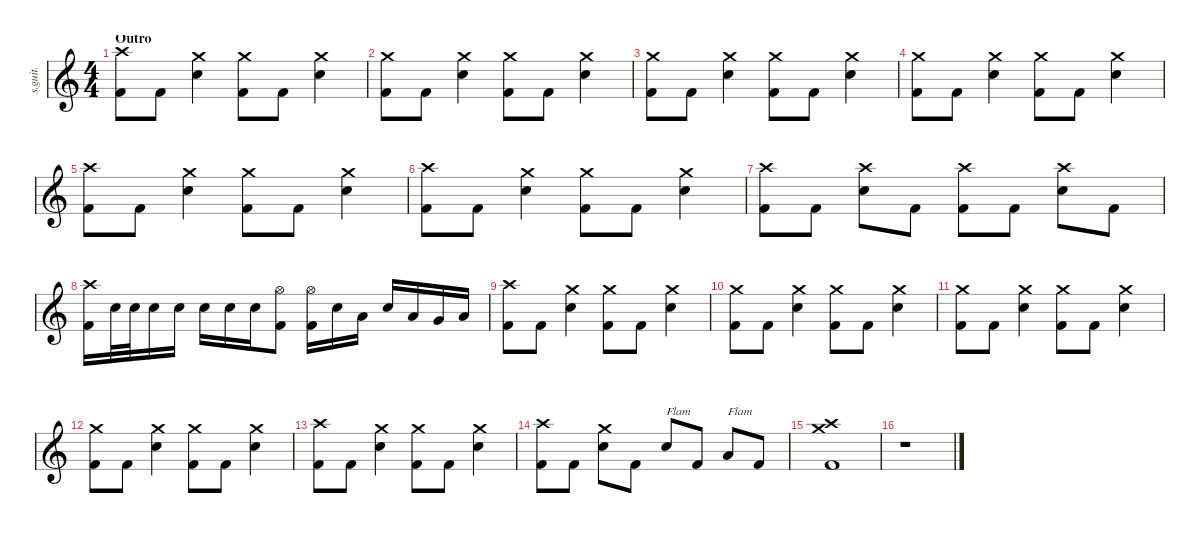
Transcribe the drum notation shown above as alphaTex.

\defaultSystemsLayout 4
\hideDynamics
\bracketExtendMode nobrackets
\track ("The Rev" "s.guit.") {instrument percussion}
\staff {score}
\articulation defaults
\ts (4 4)
\section ("" "Outro")
\tempo (125 hide)
\clef g2
\ks c
("Crash high (hit)" "Kick (hit) 2").8{lyrics (0 "") lyrics (1 "") lyrics (2 "") lyrics (3 "") lyrics (4 "") dy ff} "Kick (hit) 2".8{lyrics (0 "") lyrics (1 "") lyrics (2 "") lyrics (3 "") lyrics (4 "") dy fff} ("Crash medium (hit)" "Electric Snare (hit)").4{lyrics (0 "") lyrics (1 "") lyrics (2 "") lyrics (3 "") lyrics (4 "") dy f} ("Crash medium (hit)" "Kick (hit) 2").8{lyrics (0 "") lyrics (1 "") lyrics (2 "") lyrics (3 "") lyrics (4 "") dy mf} "Kick (hit) 2".8{lyrics (0 "") lyrics (1 "") lyrics (2 "") lyrics (3 "") lyrics (4 "") dy fff} ("Crash medium (hit)" "Electric Snare (hit)").4{lyrics (0 "") lyrics (1 "") lyrics (2 "") lyrics (3 "") lyrics (4 "") dy f} |
("Crash medium (hit)" "Kick (hit) 2").8{lyrics (0 "") lyrics (1 "") lyrics (2 "") lyrics (3 "") lyrics (4 "") dy mf} "Kick (hit) 2".8{lyrics (0 "") lyrics (1 "") lyrics (2 "") lyrics (3 "") lyrics (4 "") dy fff} ("Crash medium (hit)" "Electric Snare (hit)").4{lyrics (0 "") lyrics (1 "") lyrics (2 "") lyrics (3 "") lyrics (4 "") dy f} ("Crash medium (hit)" "Kick (hit) 2").8{lyrics (0 "") lyrics (1 "") lyrics (2 "") lyrics (3 "") lyrics (4 "") dy mf} "Kick (hit) 2".8{lyrics (0 "") lyrics (1 "") lyrics (2 "") lyrics (3 "") lyrics (4 "") dy fff} ("Crash medium (hit)" "Electric Snare (hit)").4{lyrics (0 "") lyrics (1 "") lyrics (2 "") lyrics (3 "") lyrics (4 "") dy f} |
("Crash medium (hit)" "Kick (hit) 2").8{lyrics (0 "") lyrics (1 "") lyrics (2 "") lyrics (3 "") lyrics (4 "") dy mf} "Kick (hit) 2".8{lyrics (0 "") lyrics (1 "") lyrics (2 "") lyrics (3 "") lyrics (4 "") dy fff} ("Crash medium (hit)" "Electric Snare (hit)").4{lyrics (0 "") lyrics (1 "") lyrics (2 "") lyrics (3 "") lyrics (4 "") dy f} ("Crash medium (hit)" "Kick (hit) 2").8{lyrics (0 "") lyrics (1 "") lyrics (2 "") lyrics (3 "") lyrics (4 "") dy mf} "Kick (hit) 2".8{lyrics (0 "") lyrics (1 "") lyrics (2 "") lyrics (3 "") lyrics (4 "") dy fff} ("Crash medium (hit)" "Electric Snare (hit)").4{lyrics (0 "") lyrics (1 "") lyrics (2 "") lyrics (3 "") lyrics (4 "") dy f} |
("Crash medium (hit)" "Kick (hit) 2").8{lyrics (0 "") lyrics (1 "") lyrics (2 "") lyrics (3 "") lyrics (4 "") dy mf} "Kick (hit) 2".8{lyrics (0 "") lyrics (1 "") lyrics (2 "") lyrics (3 "") lyrics (4 "") dy fff} ("Crash medium (hit)" "Electric Snare (hit)").4{lyrics (0 "") lyrics (1 "") lyrics (2 "") lyrics (3 "") lyrics (4 "") dy f} ("Crash medium (hit)" "Kick (hit) 2").8{lyrics (0 "") lyrics (1 "") lyrics (2 "") lyrics (3 "") lyrics (4 "") dy mf} "Kick (hit) 2".8{lyrics (0 "") lyrics (1 "") lyrics (2 "") lyrics (3 "") lyrics (4 "") dy fff} ("Crash medium (hit)" "Electric Snare (hit)").4{lyrics (0 "") lyrics (1 "") lyrics (2 "") lyrics (3 "") lyrics (4 "") dy f} |
("Crash high (hit)" "Kick (hit) 2").8{lyrics (0 "") lyrics (1 "") lyrics (2 "") lyrics (3 "") lyrics (4 "") dy ff} "Kick (hit) 2".8{lyrics (0 "") lyrics (1 "") lyrics (2 "") lyrics (3 "") lyrics (4 "") dy fff} ("Crash medium (hit)" "Electric Snare (hit)").4{lyrics (0 "") lyrics (1 "") lyrics (2 "") lyrics (3 "") lyrics (4 "") dy f} ("Crash medium (hit)" "Kick (hit) 2").8{lyrics (0 "") lyrics (1 "") lyrics (2 "") lyrics (3 "") lyrics (4 "") dy mf} "Kick (hit) 2".8{lyrics (0 "") lyrics (1 "") lyrics (2 "") lyrics (3 "") lyrics (4 "") dy fff} ("Crash medium (hit)" "Electric Snare (hit)").4{lyrics (0 "") lyrics (1 "") lyrics (2 "") lyrics (3 "") lyrics (4 "") dy f} |
("Crash high (hit)" "Kick (hit) 2").8{lyrics (0 "") lyrics (1 "") lyrics (2 "") lyrics (3 "") lyrics (4 "") dy ff} "Kick (hit) 2".8{lyrics (0 "") lyrics (1 "") lyrics (2 "") lyrics (3 "") lyrics (4 "") dy fff} ("Crash medium (hit)" "Electric Snare (hit)").4{lyrics (0 "") lyrics (1 "") lyrics (2 "") lyrics (3 "") lyrics (4 "") dy f} ("Crash medium (hit)" "Kick (hit) 2").8{lyrics (0 "") lyrics (1 "") lyrics (2 "") lyrics (3 "") lyrics (4 "") dy mf} "Kick (hit) 2".8{lyrics (0 "") lyrics (1 "") lyrics (2 "") lyrics (3 "") lyrics (4 "") dy fff} ("Crash medium (hit)" "Electric Snare (hit)").4{lyrics (0 "") lyrics (1 "") lyrics (2 "") lyrics (3 "") lyrics (4 "") dy f} |
("Crash high (hit)" "Kick (hit) 2").8{lyrics (0 "") lyrics (1 "") lyrics (2 "") lyrics (3 "") lyrics (4 "") dy ff} "Kick (hit) 2".8{lyrics (0 "") lyrics (1 "") lyrics (2 "") lyrics (3 "") lyrics (4 "") dy fff} ("Crash high (hit)" "Electric Snare (hit)").8{lyrics (0 "") lyrics (1 "") lyrics (2 "") lyrics (3 "") lyrics (4 "") dy f} "Kick (hit) 2".8{lyrics (0 "") lyrics (1 "") lyrics (2 "") lyrics (3 "") lyrics (4 "") dy fff} ("Crash high (hit)" "Kick (hit) 2").8{lyrics (0 "") lyrics (1 "") lyrics (2 "") lyrics (3 "") lyrics (4 "")} "Kick (hit) 2".8{lyrics (0 "") lyrics (1 "") lyrics (2 "") lyrics (3 "") lyrics (4 "")} ("Crash high (hit)" "Electric Snare (hit)").8{lyrics (0 "") lyrics (1 "") lyrics (2 "") lyrics (3 "") lyrics (4 "") dy f} "Kick (hit) 2".8{lyrics (0 "") lyrics (1 "") lyrics (2 "") lyrics (3 "") lyrics (4 "") dy fff} |
("Crash high (hit)" "Kick (hit) 2").16{lyrics (0 "") lyrics (1 "") lyrics (2 "") lyrics (3 "") lyrics (4 "")} "Electric Snare (hit)".32{lyrics (0 "") lyrics (1 "") lyrics (2 "") lyrics (3 "") lyrics (4 "") dy mp} "Electric Snare (hit)".32{lyrics (0 "") lyrics (1 "") lyrics (2 "") lyrics (3 "") lyrics (4 "")} "Electric Snare (hit)".16{lyrics (0 "") lyrics (1 "") lyrics (2 "") lyrics (3 "") lyrics (4 "") dy ff} "Electric Snare (hit)".16{lyrics (0 "") lyrics (1 "") lyrics (2 "") lyrics (3 "") lyrics (4 "")} "Electric Snare (hit)".16{lyrics (0 "") lyrics (1 "") lyrics (2 "") lyrics (3 "") lyrics (4 "")} "Electric Snare (hit)".16{lyrics (0 "") lyrics (1 "") lyrics (2 "") lyrics (3 "") lyrics (4 "")} "Electric Snare (hit)".16{lyrics (0 "") lyrics (1 "") lyrics (2 "") lyrics (3 "") lyrics (4 "")} ("Hi-Hat (open)" "Kick (hit) 2").8{lyrics (0 "") lyrics (1 "") lyrics (2 "") lyrics (3 "") lyrics (4 "") dy f} ("Hi-Hat (open)" "Kick (hit) 2").16{lyrics (0 "") lyrics (1 "") lyrics (2 "") lyrics (3 "") lyrics (4 "")} "Electric Snare (hit)".16{lyrics (0 "") lyrics (1 "") lyrics (2 "") lyrics (3 "") lyrics (4 "") dy ff} "Low Tom (hit)".16{lyrics (0 "") lyrics (1 "") lyrics (2 "") lyrics (3 "") lyrics (4 "") dy fff} "Electric Snare (hit)".16{lyrics (0 "") lyrics (1 "") lyrics (2 "") lyrics (3 "") lyrics (4 "") dy ff} "Low Tom (hit)".16{lyrics (0 "") lyrics (1 "") lyrics (2 "") lyrics (3 "") lyrics (4 "") dy fff} "Very Low Tom (hit)".16{lyrics (0 "") lyrics (1 "") lyrics (2 "") lyrics (3 "") lyrics (4 "") dy ff} "Low Floor Tom (hit)".16{lyrics (0 "") lyrics (1 "") lyrics (2 "") lyrics (3 "") lyrics (4 "")} |
("Crash high (hit)" "Kick (hit) 2").8{lyrics (0 "") lyrics (1 "") lyrics (2 "") lyrics (3 "") lyrics (4 "")} "Kick (hit) 2".8{lyrics (0 "") lyrics (1 "") lyrics (2 "") lyrics (3 "") lyrics (4 "") dy fff} ("Crash medium (hit)" "Electric Snare (hit)").4{lyrics (0 "") lyrics (1 "") lyrics (2 "") lyrics (3 "") lyrics (4 "") dy f} ("Crash medium (hit)" "Kick (hit) 2").8{lyrics (0 "") lyrics (1 "") lyrics (2 "") lyrics (3 "") lyrics (4 "") dy mf} "Kick (hit) 2".8{lyrics (0 "") lyrics (1 "") lyrics (2 "") lyrics (3 "") lyrics (4 "") dy fff} ("Crash medium (hit)" "Electric Snare (hit)").4{lyrics (0 "") lyrics (1 "") lyrics (2 "") lyrics (3 "") lyrics (4 "") dy f} |
("Crash medium (hit)" "Kick (hit) 2").8{lyrics (0 "") lyrics (1 "") lyrics (2 "") lyrics (3 "") lyrics (4 "") dy mf} "Kick (hit) 2".8{lyrics (0 "") lyrics (1 "") lyrics (2 "") lyrics (3 "") lyrics (4 "") dy fff} ("Crash medium (hit)" "Electric Snare (hit)").4{lyrics (0 "") lyrics (1 "") lyrics (2 "") lyrics (3 "") lyrics (4 "") dy f} ("Crash medium (hit)" "Kick (hit) 2").8{lyrics (0 "") lyrics (1 "") lyrics (2 "") lyrics (3 "") lyrics (4 "") dy mf} "Kick (hit) 2".8{lyrics (0 "") lyrics (1 "") lyrics (2 "") lyrics (3 "") lyrics (4 "") dy fff} ("Crash medium (hit)" "Electric Snare (hit)").4{lyrics (0 "") lyrics (1 "") lyrics (2 "") lyrics (3 "") lyrics (4 "") dy f} |
("Crash medium (hit)" "Kick (hit) 2").8{lyrics (0 "") lyrics (1 "") lyrics (2 "") lyrics (3 "") lyrics (4 "") dy mf} "Kick (hit) 2".8{lyrics (0 "") lyrics (1 "") lyrics (2 "") lyrics (3 "") lyrics (4 "") dy fff} ("Crash medium (hit)" "Electric Snare (hit)").4{lyrics (0 "") lyrics (1 "") lyrics (2 "") lyrics (3 "") lyrics (4 "") dy f} ("Crash medium (hit)" "Kick (hit) 2").8{lyrics (0 "") lyrics (1 "") lyrics (2 "") lyrics (3 "") lyrics (4 "") dy mf} "Kick (hit) 2".8{lyrics (0 "") lyrics (1 "") lyrics (2 "") lyrics (3 "") lyrics (4 "") dy fff} ("Crash medium (hit)" "Electric Snare (hit)").4{lyrics (0 "") lyrics (1 "") lyrics (2 "") lyrics (3 "") lyrics (4 "") dy f} |
("Crash medium (hit)" "Kick (hit) 2").8{lyrics (0 "") lyrics (1 "") lyrics (2 "") lyrics (3 "") lyrics (4 "") dy mf} "Kick (hit) 2".8{lyrics (0 "") lyrics (1 "") lyrics (2 "") lyrics (3 "") lyrics (4 "") dy fff} ("Crash medium (hit)" "Electric Snare (hit)").4{lyrics (0 "") lyrics (1 "") lyrics (2 "") lyrics (3 "") lyrics (4 "") dy f} ("Crash medium (hit)" "Kick (hit) 2").8{lyrics (0 "") lyrics (1 "") lyrics (2 "") lyrics (3 "") lyrics (4 "") dy mf} "Kick (hit) 2".8{lyrics (0 "") lyrics (1 "") lyrics (2 "") lyrics (3 "") lyrics (4 "") dy fff} ("Crash medium (hit)" "Electric Snare (hit)").4{lyrics (0 "") lyrics (1 "") lyrics (2 "") lyrics (3 "") lyrics (4 "") dy f} |
("Crash high (hit)" "Kick (hit) 2").8{lyrics (0 "") lyrics (1 "") lyrics (2 "") lyrics (3 "") lyrics (4 "") dy ff} "Kick (hit) 2".8{lyrics (0 "") lyrics (1 "") lyrics (2 "") lyrics (3 "") lyrics (4 "") dy fff} ("Crash medium (hit)" "Electric Snare (hit)").4{lyrics (0 "") lyrics (1 "") lyrics (2 "") lyrics (3 "") lyrics (4 "") dy f} ("Crash medium (hit)" "Kick (hit) 2").8{lyrics (0 "") lyrics (1 "") lyrics (2 "") lyrics (3 "") lyrics (4 "") dy mf} "Kick (hit) 2".8{lyrics (0 "") lyrics (1 "") lyrics (2 "") lyrics (3 "") lyrics (4 "") dy fff} ("Crash medium (hit)" "Electric Snare (hit)").4{lyrics (0 "") lyrics (1 "") lyrics (2 "") lyrics (3 "") lyrics (4 "") dy f} |
("Crash high (hit)" "Kick (hit) 2").8{lyrics (0 "") lyrics (1 "") lyrics (2 "") lyrics (3 "") lyrics (4 "") dy ff} "Kick (hit) 2".8{lyrics (0 "") lyrics (1 "") lyrics (2 "") lyrics (3 "") lyrics (4 "") dy fff} ("Crash medium (hit)" "Electric Snare (hit)").8{lyrics (0 "") lyrics (1 "") lyrics (2 "") lyrics (3 "") lyrics (4 "") dy f} "Kick (hit) 2".8{lyrics (0 "") lyrics (1 "") lyrics (2 "") lyrics (3 "") lyrics (4 "") dy fff} "Electric Snare (hit)".8{txt "Flam" lyrics (0 "") lyrics (1 "") lyrics (2 "") lyrics (3 "") lyrics (4 "")} "Kick (hit) 2".8{lyrics (0 "") lyrics (1 "") lyrics (2 "") lyrics (3 "") lyrics (4 "")} "Low Tom (hit)".8{txt "Flam" lyrics (0 "") lyrics (1 "") lyrics (2 "") lyrics (3 "") lyrics (4 "")} "Kick (hit) 2".8{lyrics (0 "") lyrics (1 "") lyrics (2 "") lyrics (3 "") lyrics (4 "")} |
("Crash medium (hit)" "Crash high (hit)" "Kick (hit) 2").1{lyrics (0 "") lyrics (1 "") lyrics (2 "") lyrics (3 "") lyrics (4 "") dy f} |
r.1
